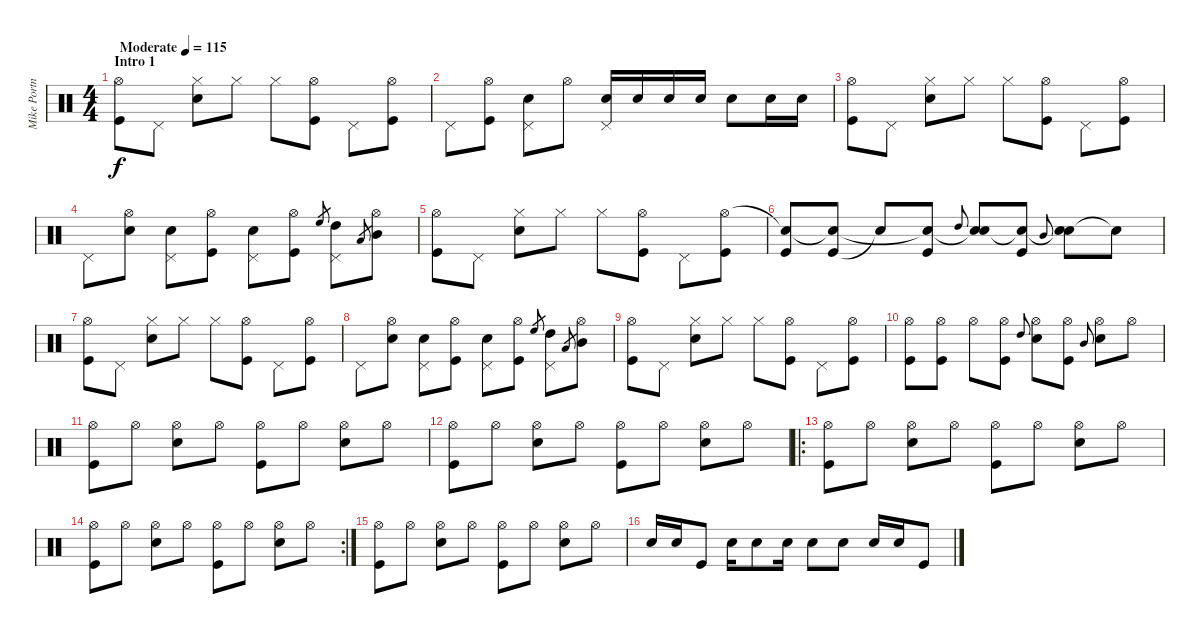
\track ("Mike Portnoy" "Mike Portn") {instrument percussion}
\staff {score}
\articulation defaults
\ts (4 4)
\section ("" "Intro 1")
\tempo (115 "Moderate")
\clef neutral
\ks c
("Kick (hit)" "Hi-Hat (open)").8{dy f} "Pedal Hi-Hat (hit)".8 ("Snare (hit) 2" "Hi-Hat (closed)").8 "Hi-Hat (closed)".8 "Hi-Hat (closed)".8 ("Kick (hit)" "Hi-Hat (open)").8 "Pedal Hi-Hat (hit)".8 ("Kick (hit)" "Hi-Hat (open)").8 |
"Pedal Hi-Hat (hit)".8 ("Kick (hit)" "Hi-Hat (open)").8 ("Snare (hit) 2" "Pedal Hi-Hat (hit)").8 "Hi-Hat (open)".8 ("Snare (hit) 2" "Pedal Hi-Hat (hit)").16 "Snare (hit) 2".16 "Snare (hit) 2".16 "Snare (hit) 2".16 "Snare (hit) 2".8 "Snare (hit) 2".16 "Snare (hit) 2".16 |
("Kick (hit)" "Hi-Hat (open)").8 "Pedal Hi-Hat (hit)".8 ("Snare (hit) 2" "Hi-Hat (closed)").8 "Hi-Hat (closed)".8 "Hi-Hat (closed)".8 ("Kick (hit)" "Hi-Hat (open)").8 "Pedal Hi-Hat (hit)".8 ("Kick (hit)" "Hi-Hat (open)").8 |
"Pedal Hi-Hat (hit)".8 ("Snare (hit) 2" "Hi-Hat (open)").8 ("Snare (hit) 2" "Pedal Hi-Hat (hit)").8 ("Kick (hit)" "Hi-Hat (open)").8 ("Snare (hit) 2" "Pedal Hi-Hat (hit)").8 ("Kick (hit)" "Hi-Hat (open)").8 "High Floor Tom (hit)".8{gr} ("High Tom (hit)" "Pedal Hi-Hat (hit)").8 "Low Tom (hit)".8{gr} ("Mid Tom (hit)" "Hi-Hat (open)").8 |
("Kick (hit)" "Hi-Hat (open)").8 "Pedal Hi-Hat (hit)".8 ("Snare (hit) 2" "Hi-Hat (closed)").8 "Hi-Hat (closed)".8 "Hi-Hat (closed)".8 ("Kick (hit)" "Hi-Hat (open)").8 "Pedal Hi-Hat (hit)".8 ("Kick (hit)" "Hi-Hat (open)").8 |
("Kick (hit)" "Snare (hit)"{t}).8 ("Kick (hit)" "Snare (hit)"{t}).8 "Snare (hit)"{t}.8 ("Kick (hit)" "Snare (hit)"{t}).8 "High Tom (hit)".8{gr onbeat} ("Snare (hit) 2" "Snare (hit)"{t}).8 ("Kick (hit)" "Snare (hit)"{t}).8 "Mid Tom (hit)".8{gr onbeat} ("Snare (hit) 2" "Snare (hit)"{t}).8 "Snare (hit)"{t}.8 |
("Kick (hit)" "Hi-Hat (open)").8 "Pedal Hi-Hat (hit)".8 ("Snare (hit) 2" "Hi-Hat (closed)").8 "Hi-Hat (closed)".8 "Hi-Hat (closed)".8 ("Kick (hit)" "Hi-Hat (open)").8 "Pedal Hi-Hat (hit)".8 ("Kick (hit)" "Hi-Hat (open)").8 |
"Pedal Hi-Hat (hit)".8 ("Snare (hit) 2" "Hi-Hat (open)").8 ("Snare (hit) 2" "Pedal Hi-Hat (hit)").8 ("Kick (hit)" "Hi-Hat (open)").8 ("Snare (hit) 2" "Pedal Hi-Hat (hit)").8 ("Kick (hit)" "Hi-Hat (open)").8 "High Floor Tom (hit)".8{gr} ("High Tom (hit)" "Pedal Hi-Hat (hit)").8 "Low Tom (hit)".8{gr} ("Mid Tom (hit)" "Hi-Hat (open)").8 |
("Kick (hit)" "Hi-Hat (open)").8 "Pedal Hi-Hat (hit)".8 ("Snare (hit) 2" "Hi-Hat (closed)").8 "Hi-Hat (closed)".8 "Hi-Hat (closed)".8 ("Kick (hit)" "Hi-Hat (open)").8 "Pedal Hi-Hat (hit)".8 ("Kick (hit)" "Hi-Hat (open)").8 |
("Kick (hit)" "Hi-Hat (open)").8 ("Kick (hit)" "Hi-Hat (open)").8 "Hi-Hat (open)".8 ("Kick (hit)" "Hi-Hat (open)").8 "High Tom (hit)".8{gr onbeat} ("Snare (hit) 2" "Hi-Hat (open)").8 ("Kick (hit)" "Hi-Hat (open)").8 "Mid Tom (hit)".8{gr onbeat} ("Snare (hit) 2" "Hi-Hat (open)").8 "Hi-Hat (open)".8 |
("Kick (hit)" "Hi-Hat (open)").8 "Hi-Hat (open)".8 ("Snare (hit) 2" "Hi-Hat (open)").8 "Hi-Hat (open)".8 ("Kick (hit)" "Hi-Hat (open)").8 "Hi-Hat (open)".8 ("Snare (hit) 2" "Hi-Hat (open)").8 "Hi-Hat (open)".8 |
("Kick (hit)" "Hi-Hat (open)").8 "Hi-Hat (open)".8 ("Snare (hit) 2" "Hi-Hat (open)").8 "Hi-Hat (open)".8 ("Kick (hit)" "Hi-Hat (open)").8 "Hi-Hat (open)".8 ("Snare (hit) 2" "Hi-Hat (open)").8 "Hi-Hat (open)".8 |
\ro
("Kick (hit)" "Hi-Hat (open)").8 "Hi-Hat (open)".8 ("Snare (hit) 2" "Hi-Hat (open)").8 "Hi-Hat (open)".8 ("Kick (hit)" "Hi-Hat (open)").8 "Hi-Hat (open)".8 ("Snare (hit) 2" "Hi-Hat (open)").8 "Hi-Hat (open)".8 |
\rc 2
("Kick (hit)" "Hi-Hat (open)").8 "Hi-Hat (open)".8 ("Snare (hit) 2" "Hi-Hat (open)").8 "Hi-Hat (open)".8 ("Kick (hit)" "Hi-Hat (open)").8 "Hi-Hat (open)".8 ("Snare (hit) 2" "Hi-Hat (open)").8 "Hi-Hat (open)".8 |
("Kick (hit)" "Hi-Hat (open)").8 "Hi-Hat (open)".8 ("Snare (hit) 2" "Hi-Hat (open)").8 "Hi-Hat (open)".8 ("Kick (hit)" "Hi-Hat (open)").8 "Hi-Hat (open)".8 ("Snare (hit) 2" "Hi-Hat (open)").8 "Hi-Hat (open)".8 |
"Snare (hit) 2".16 "Snare (hit) 2".16 "Kick (hit)".8 "Snare (hit) 2".16 "Snare (hit) 2".8 "Snare (hit) 2".16 "Snare (hit) 2".8 "Snare (hit) 2".8 "Snare (hit) 2".16 "Snare (hit) 2".16 "Kick (hit)".8
